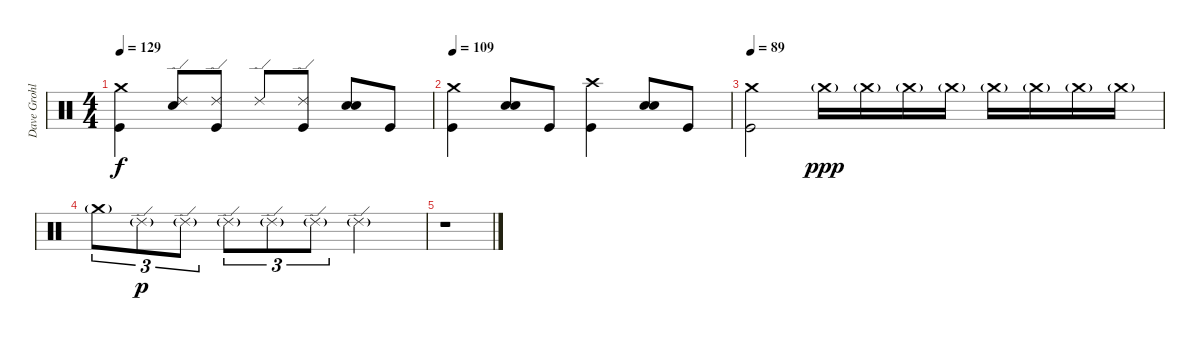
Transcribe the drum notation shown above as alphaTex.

\track ("Dave Grohl" "Dave Grohl") {instrument percussion}
\staff {score}
\articulation defaults
\ts (4 4)
\tempo 129
\clef neutral
\ks c
("Crash medium (hit)" "Kick (hit)").4{dy f} ("Ride (edge) 2" "Electric Snare (hit)").8 ("Ride (edge) 2" "Kick (hit)").8 "Ride (edge) 2".8 ("Ride (edge) 2" "Kick (hit)").8 ("Electric Snare (hit)" "Electric Snare (hit)").8{bd 120} "Kick (hit)".8 |
\tempo 109
("Crash medium (hit)" "Kick (hit)").4 ("Electric Snare (hit)" "Electric Snare (hit)").8{bd 120} "Kick (hit)".8 ("Crash high (hit)" "Kick (hit)").4 ("Electric Snare (hit)" "Electric Snare (hit)").8{bd 120} "Kick (hit)".8 |
\tempo 89
("Crash medium (hit)" "Kick (hit)").2 "Crash medium (hit)"{g}.16{dy ppp} "Crash medium (hit)"{g}.16 "Crash medium (hit)"{g}.16 "Crash medium (hit)"{g}.16 "Crash medium (hit)"{g}.16 "Crash medium (hit)"{g}.16 "Crash medium (hit)"{g}.16 "Crash medium (hit)"{g}.16 |
"Crash medium (hit)"{g}.8{tu (3 2)} "Ride (edge) 2"{g}.8{tu (3 2) dy p} "Ride (edge) 2"{g}.8{tu (3 2)} "Ride (edge) 2"{g}.8{tu (3 2)} "Ride (edge) 2"{g}.8{tu (3 2)} "Ride (edge) 2"{g}.8{tu (3 2)} "Ride (edge) 2"{g}.2 |
r.1
